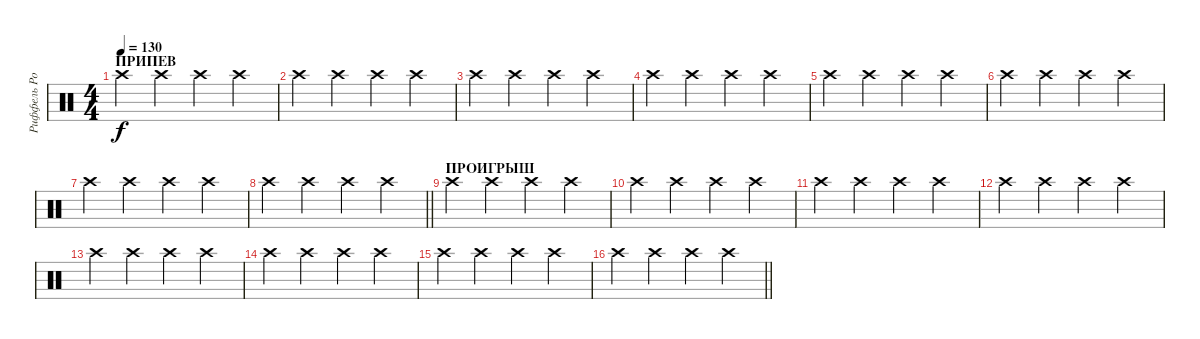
\track ("Риффель Роман(хэты)" "Риффель Ро") {instrument percussion}
\staff {score}
\articulation defaults
\ts (4 4)
\section ("" "ПРИПЕВ")
\tempo 130
\clef neutral
\ks c "Crash high (hit)".4{dy f} "Crash high (hit)".4 "Crash high (hit)".4 "Crash high (hit)".4
|
"Crash high (hit)".4 "Crash high (hit)".4 "Crash high (hit)".4 "Crash high (hit)".4 |
"Crash high (hit)".4 "Crash high (hit)".4 "Crash high (hit)".4 "Crash high (hit)".4 |
"Crash high (hit)".4 "Crash high (hit)".4 "Crash high (hit)".4 "Crash high (hit)".4 |
"Crash high (hit)".4 "Crash high (hit)".4 "Crash high (hit)".4 "Crash high (hit)".4 |
"Crash high (hit)".4 "Crash high (hit)".4 "Crash high (hit)".4 "Crash high (hit)".4 |
"Crash high (hit)".4 "Crash high (hit)".4 "Crash high (hit)".4 "Crash high (hit)".4 |
\barLineRight lightlight "Crash high (hit)".4 "Crash high (hit)".4 "Crash high (hit)".4 "Crash high (hit)".4
|
\section ("" "ПРОИГРЫШ")
"Crash high (hit)".4 "Crash high (hit)".4 "Crash high (hit)".4 "Crash high (hit)".4 |
"Crash high (hit)".4 "Crash high (hit)".4 "Crash high (hit)".4 "Crash high (hit)".4 |
"Crash high (hit)".4 "Crash high (hit)".4 "Crash high (hit)".4 "Crash high (hit)".4 |
"Crash high (hit)".4 "Crash high (hit)".4 "Crash high (hit)".4 "Crash high (hit)".4 |
"Crash high (hit)".4 "Crash high (hit)".4 "Crash high (hit)".4 "Crash high (hit)".4 |
"Crash high (hit)".4 "Crash high (hit)".4 "Crash high (hit)".4 "Crash high (hit)".4 |
"Crash high (hit)".4 "Crash high (hit)".4 "Crash high (hit)".4 "Crash high (hit)".4 |
\barLineRight lightlight "Crash high (hit)".4 "Crash high (hit)".4 "Crash high (hit)".4 "Crash high (hit)".4
